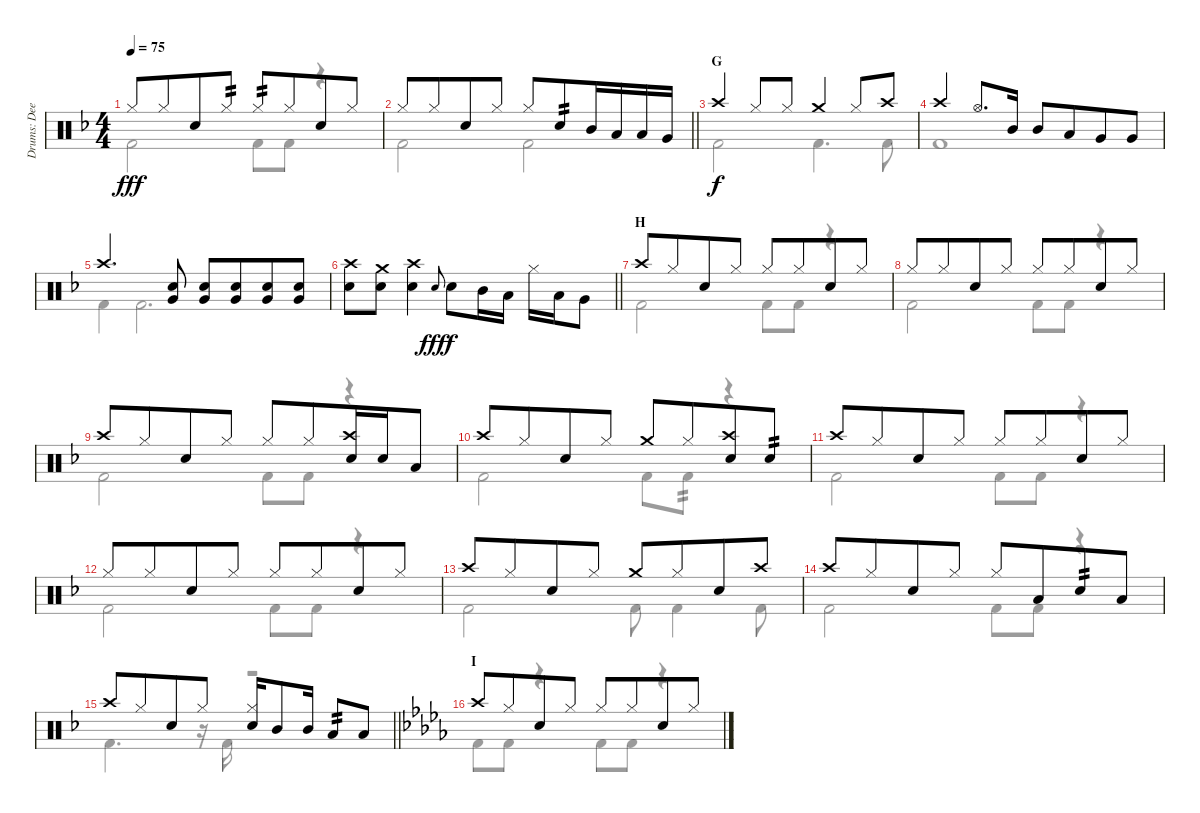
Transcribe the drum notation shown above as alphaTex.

\track ("Drums: Deen" "Drums: Dee") {instrument percussion}
\staff {score}
\articulation defaults
\voice
\ts (4 4)
\tempo 75
\clef neutral
\ks f "Hi-Hat (closed)".8{dy fff} "Hi-Hat (closed)".8{beam merge} "Snare (hit) 2".8 "Hi-Hat (closed)".8{tp 2} "Hi-Hat (closed)".8{tp 2} "Hi-Hat (closed)".8{beam merge} "Snare (hit) 2".8 "Hi-Hat (closed)".8
|
\barLineRight lightlight "Hi-Hat (closed)".8 "Hi-Hat (closed)".8{beam merge} "Snare (hit) 2".8 "Hi-Hat (closed)".8 "Hi-Hat (closed)".8 "Snare (hit) 2".8{tp 2 beam merge} "Mid Tom (hit)".16 "Low Tom (hit)".16 "Low Tom (hit)".16 "Very Low Tom (hit)".16
|
\section ("" "G")
"Crash high (hit)".4{dy f} "Hi-Hat (closed)".8 "Hi-Hat (closed)".8 "Crash medium (hit)".4 "Hi-Hat (closed)".8 "Crash high (hit)".8 |
"Crash high (hit)".4 "Hi-Hat (open)".8{d} "Mid Tom (hit)".16 "Mid Tom (hit)".8 "Low Tom (hit)".8{beam merge} "Very Low Tom (hit)".8 "Very Low Tom (hit)".8 |
"Crash high (hit)".4{d} ("Snare (hit) 2" "Very Low Tom (hit)").8 ("Snare (hit) 2" "Very Low Tom (hit)").8 ("Snare (hit) 2" "Very Low Tom (hit)").8{beam merge} ("Snare (hit) 2" "Very Low Tom (hit)").8 ("Snare (hit) 2" "Very Low Tom (hit)").8 |
\barLineRight lightlight
("Crash high (hit)" "Snare (hit) 2").8 ("Crash medium (hit)" "Snare (hit) 2").8 ("Crash high (hit)" "Snare (hit) 2").4 "Electric Snare (hit)".8{gr onbeat dy fff} "Snare (hit) 2".8{dy f} "Mid Tom (hit)".16 "Low Tom (hit)".16 "Hi-Hat (closed)".16 "Low Tom (hit)".16 "Very Low Tom (hit)".8 |
\section ("" "H")
"Crash high (hit)".8 "Hi-Hat (closed)".8{beam merge} "Snare (hit) 2".8 "Hi-Hat (closed)".8 "Hi-Hat (closed)".8 "Hi-Hat (closed)".8{beam merge} "Snare (hit) 2".8 "Hi-Hat (closed)".8 |
"Hi-Hat (closed)".8 "Hi-Hat (closed)".8{beam merge} "Snare (hit) 2".8 "Hi-Hat (closed)".8 "Hi-Hat (closed)".8 "Hi-Hat (closed)".8{beam merge} "Snare (hit) 2".8 "Hi-Hat (closed)".8 |
"Crash high (hit)".8 "Hi-Hat (closed)".8{beam merge} "Snare (hit) 2".8 "Hi-Hat (closed)".8 "Hi-Hat (closed)".8 "Hi-Hat (closed)".8{beam merge} ("Crash high (hit)" "Snare (hit) 2").16 "Snare (hit) 2".16 "Low Tom (hit)".8 |
"Crash high (hit)".8 "Hi-Hat (closed)".8{beam merge} "Snare (hit) 2".8 "Hi-Hat (closed)".8 "Crash medium (hit)".8 "Hi-Hat (closed)".8{beam merge} ("Crash high (hit)" "Snare (hit) 2").8 "Snare (hit) 2".8{tp 2} |
"Crash high (hit)".8 "Hi-Hat (closed)".8{beam merge} "Snare (hit) 2".8 "Hi-Hat (closed)".8 "Hi-Hat (closed)".8 "Hi-Hat (closed)".8{beam merge} "Snare (hit) 2".8 "Hi-Hat (closed)".8 |
"Hi-Hat (closed)".8 "Hi-Hat (closed)".8{beam merge} "Snare (hit) 2".8 "Hi-Hat (closed)".8 "Hi-Hat (closed)".8 "Hi-Hat (closed)".8{beam merge} "Snare (hit) 2".8 "Hi-Hat (closed)".8 |
"Crash high (hit)".8 "Hi-Hat (closed)".8{beam merge} "Snare (hit) 2".8 "Hi-Hat (closed)".8 "Crash medium (hit)".8 "Hi-Hat (closed)".8{beam merge} "Snare (hit) 2".8 "Crash high (hit)".8 |
"Crash high (hit)".8 "Hi-Hat (closed)".8{beam merge} "Snare (hit) 2".8 "Hi-Hat (closed)".8 "Hi-Hat (closed)".8 "Low Tom (hit)".8{beam merge} "Snare (hit) 2".8{tp 2} "Low Tom (hit)".8 |
\barLineRight lightlight "Crash high (hit)".8 "Hi-Hat (closed)".8{beam merge} "Snare (hit) 2".8 "Hi-Hat (closed)".8
("Hi-Hat (closed)" "Snare (hit) 2").16 "Mid Tom (hit)".8{beam merge} "Mid Tom (hit)".16 "Low Tom (hit)".8{tp 2} "Low Tom (hit)".8 |
\section ("" "I")
\ks db "Crash high (hit)".8 "Hi-Hat (closed)".8{beam merge} "Snare (hit) 2".8 "Hi-Hat (closed)".8 "Hi-Hat (closed)".8 "Hi-Hat (closed)".8{beam merge} "Snare (hit) 2".8 "Hi-Hat (closed)".8
\voice
\clef neutral
\ottava regular
\simile none
\ks f "Kick (hit) 2".2{dy fff} "Kick (hit) 2".8 "Kick (hit) 2".8
r.4 |
\barLineRight lightlight "Kick (hit) 2".2 "Kick (hit) 2".2
|
"Kick (hit) 2".2{dy f} "Kick (hit) 2".4{d} "Kick (hit) 2".8 |
"Kick (hit) 2".1 |
"Kick (hit) 2".4 "Kick (hit) 2".2{d} |
\barLineRight lightlight
|
"Kick (hit) 2".2 "Kick (hit) 2".8 "Kick (hit) 2".8 r.4 |
"Kick (hit) 2".2 "Kick (hit) 2".8 "Kick (hit) 2".8 r.4 |
"Kick (hit) 2".2 "Kick (hit) 2".8 "Kick (hit) 2".8 r.4 |
"Kick (hit) 2".2 "Kick (hit) 2".8 "Kick (hit) 2".8{tp 2} r.4 |
"Kick (hit) 2".2 "Kick (hit) 2".8 "Kick (hit) 2".8 r.4 |
"Kick (hit) 2".2 "Kick (hit) 2".8 "Kick (hit) 2".8 r.4 |
"Kick (hit) 2".2 "Kick (hit) 2".8 "Kick (hit) 2".4 "Kick (hit) 2".8 |
"Kick (hit) 2".2 "Kick (hit) 2".8 "Kick (hit) 2".8 r.4 |
\barLineRight lightlight "Kick (hit) 2".4{d}
r.16 "Kick (hit) 2".16 r.2 |
\ks db "Kick (hit) 2".8 "Kick (hit) 2".8
r.4 "Kick (hit) 2".8 "Kick (hit) 2".8 r.4
